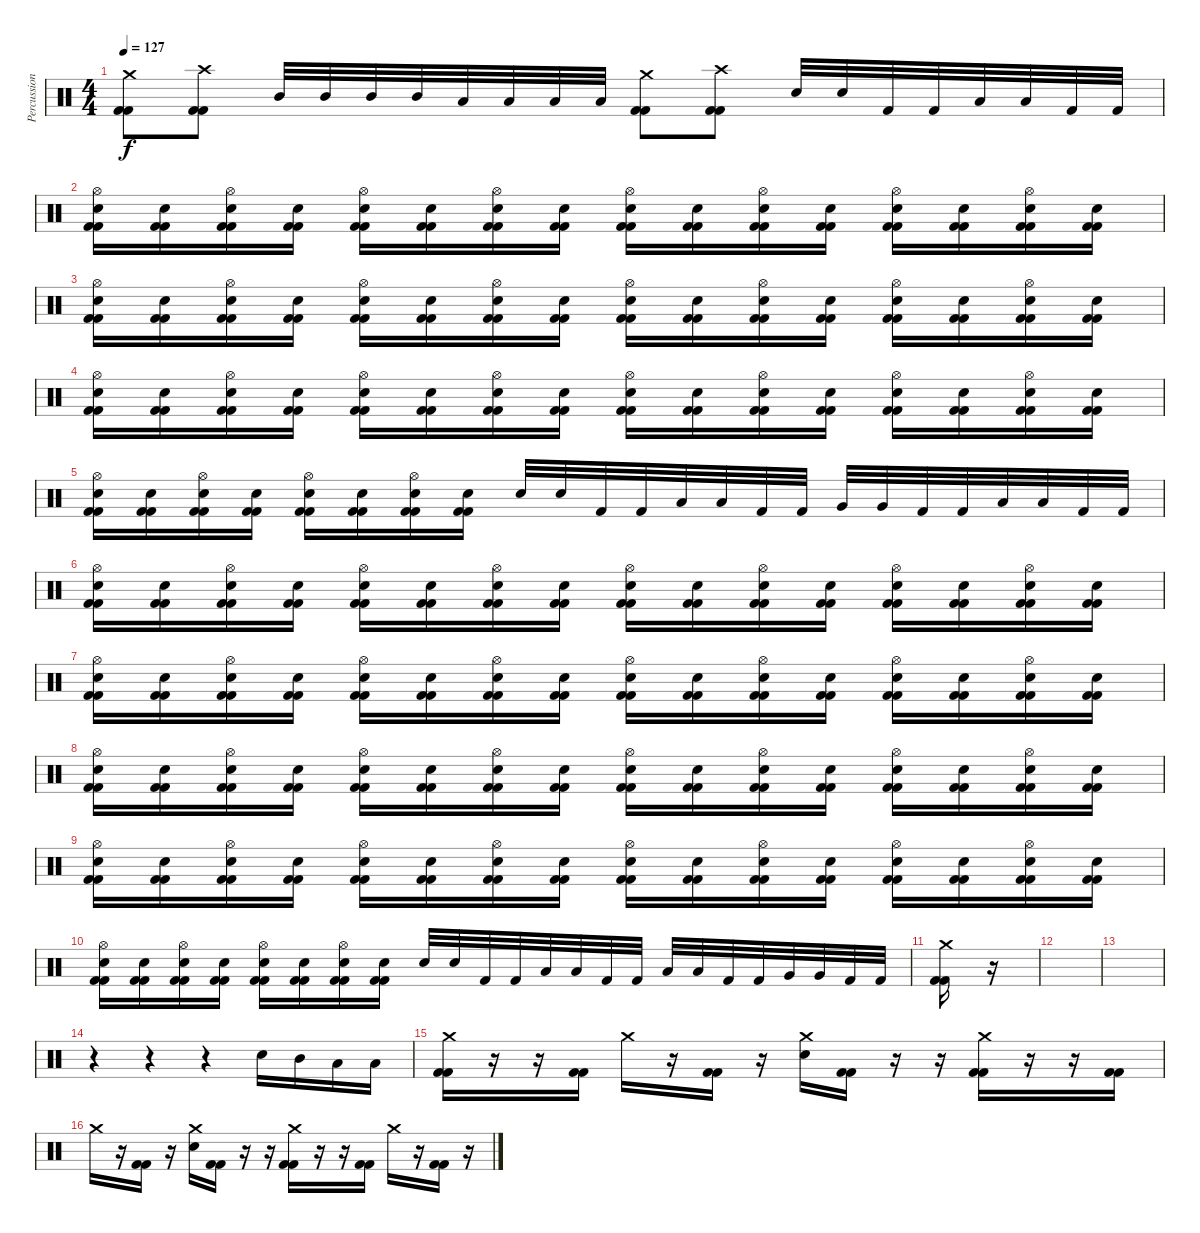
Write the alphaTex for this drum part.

\track ("Percussion" "Percussion") {instrument percussion}
\staff {score}
\articulation defaults
\ts (4 4)
\tempo 127
\clef neutral
\ks c
("Crash medium (hit)" "Kick (hit) 2" "Kick (hit) 2").8{dy f} ("Crash high (hit)" "Kick (hit) 2" "Kick (hit) 2").8 "Mid Tom (hit)".32 "Mid Tom (hit)".32 "Mid Tom (hit)".32 "Mid Tom (hit)".32 "Low Tom (hit)".32 "Low Tom (hit)".32 "Low Tom (hit)".32 "Low Tom (hit)".32 ("Crash medium (hit)" "Kick (hit) 2" "Kick (hit) 2").8 ("Crash high (hit)" "Kick (hit) 2" "Kick (hit) 2").8 "Electric Snare (hit)".32 "Electric Snare (hit)".32 "Kick (hit) 2".32 "Kick (hit) 2".32 "Low Tom (hit)".32 "Low Tom (hit)".32 "Kick (hit) 2".32 "Kick (hit) 2".32 |
("Hi-Hat (open)" "Electric Snare (hit)" "Kick (hit) 2" "Kick (hit) 2").16 ("Electric Snare (hit)" "Kick (hit) 2" "Kick (hit) 2").16 ("Hi-Hat (open)" "Electric Snare (hit)" "Kick (hit) 2" "Kick (hit) 2").16 ("Electric Snare (hit)" "Kick (hit) 2" "Kick (hit) 2").16 ("Hi-Hat (open)" "Electric Snare (hit)" "Kick (hit) 2" "Kick (hit) 2").16 ("Electric Snare (hit)" "Kick (hit) 2" "Kick (hit) 2").16 ("Hi-Hat (open)" "Electric Snare (hit)" "Kick (hit) 2" "Kick (hit) 2").16 ("Electric Snare (hit)" "Kick (hit) 2" "Kick (hit) 2").16 ("Hi-Hat (open)" "Electric Snare (hit)" "Kick (hit) 2" "Kick (hit) 2").16 ("Electric Snare (hit)" "Kick (hit) 2" "Kick (hit) 2").16 ("Hi-Hat (open)" "Electric Snare (hit)" "Kick (hit) 2" "Kick (hit) 2").16 ("Electric Snare (hit)" "Kick (hit) 2" "Kick (hit) 2").16 ("Hi-Hat (open)" "Electric Snare (hit)" "Kick (hit) 2" "Kick (hit) 2").16 ("Electric Snare (hit)" "Kick (hit) 2" "Kick (hit) 2").16 ("Hi-Hat (open)" "Electric Snare (hit)" "Kick (hit) 2" "Kick (hit) 2").16 ("Electric Snare (hit)" "Kick (hit) 2" "Kick (hit) 2").16 |
("Hi-Hat (open)" "Electric Snare (hit)" "Kick (hit) 2" "Kick (hit) 2").16 ("Electric Snare (hit)" "Kick (hit) 2" "Kick (hit) 2").16 ("Hi-Hat (open)" "Electric Snare (hit)" "Kick (hit) 2" "Kick (hit) 2").16 ("Electric Snare (hit)" "Kick (hit) 2" "Kick (hit) 2").16 ("Hi-Hat (open)" "Electric Snare (hit)" "Kick (hit) 2" "Kick (hit) 2").16 ("Electric Snare (hit)" "Kick (hit) 2" "Kick (hit) 2").16 ("Hi-Hat (open)" "Electric Snare (hit)" "Kick (hit) 2" "Kick (hit) 2").16 ("Electric Snare (hit)" "Kick (hit) 2" "Kick (hit) 2").16 ("Hi-Hat (open)" "Electric Snare (hit)" "Kick (hit) 2" "Kick (hit) 2").16 ("Electric Snare (hit)" "Kick (hit) 2" "Kick (hit) 2").16 ("Hi-Hat (open)" "Electric Snare (hit)" "Kick (hit) 2" "Kick (hit) 2").16 ("Electric Snare (hit)" "Kick (hit) 2" "Kick (hit) 2").16 ("Hi-Hat (open)" "Electric Snare (hit)" "Kick (hit) 2" "Kick (hit) 2").16 ("Electric Snare (hit)" "Kick (hit) 2" "Kick (hit) 2").16 ("Hi-Hat (open)" "Electric Snare (hit)" "Kick (hit) 2" "Kick (hit) 2").16 ("Electric Snare (hit)" "Kick (hit) 2" "Kick (hit) 2").16 |
("Hi-Hat (open)" "Electric Snare (hit)" "Kick (hit) 2" "Kick (hit) 2").16 ("Electric Snare (hit)" "Kick (hit) 2" "Kick (hit) 2").16 ("Hi-Hat (open)" "Electric Snare (hit)" "Kick (hit) 2" "Kick (hit) 2").16 ("Electric Snare (hit)" "Kick (hit) 2" "Kick (hit) 2").16 ("Hi-Hat (open)" "Electric Snare (hit)" "Kick (hit) 2" "Kick (hit) 2").16 ("Electric Snare (hit)" "Kick (hit) 2" "Kick (hit) 2").16 ("Hi-Hat (open)" "Electric Snare (hit)" "Kick (hit) 2" "Kick (hit) 2").16 ("Electric Snare (hit)" "Kick (hit) 2" "Kick (hit) 2").16 ("Hi-Hat (open)" "Electric Snare (hit)" "Kick (hit) 2" "Kick (hit) 2").16 ("Electric Snare (hit)" "Kick (hit) 2" "Kick (hit) 2").16 ("Hi-Hat (open)" "Electric Snare (hit)" "Kick (hit) 2" "Kick (hit) 2").16 ("Electric Snare (hit)" "Kick (hit) 2" "Kick (hit) 2").16 ("Hi-Hat (open)" "Electric Snare (hit)" "Kick (hit) 2" "Kick (hit) 2").16 ("Electric Snare (hit)" "Kick (hit) 2" "Kick (hit) 2").16 ("Hi-Hat (open)" "Electric Snare (hit)" "Kick (hit) 2" "Kick (hit) 2").16 ("Electric Snare (hit)" "Kick (hit) 2" "Kick (hit) 2").16 |
("Hi-Hat (open)" "Electric Snare (hit)" "Kick (hit) 2" "Kick (hit) 2").16 ("Electric Snare (hit)" "Kick (hit) 2" "Kick (hit) 2").16 ("Hi-Hat (open)" "Electric Snare (hit)" "Kick (hit) 2" "Kick (hit) 2").16 ("Electric Snare (hit)" "Kick (hit) 2" "Kick (hit) 2").16 ("Hi-Hat (open)" "Electric Snare (hit)" "Kick (hit) 2" "Kick (hit) 2").16 ("Electric Snare (hit)" "Kick (hit) 2" "Kick (hit) 2").16 ("Hi-Hat (open)" "Electric Snare (hit)" "Kick (hit) 2" "Kick (hit) 2").16 ("Electric Snare (hit)" "Kick (hit) 2" "Kick (hit) 2").16 "Electric Snare (hit)".32 "Electric Snare (hit)".32 "Kick (hit) 2".32 "Kick (hit) 2".32 "Low Tom (hit)".32 "Low Tom (hit)".32 "Kick (hit) 2".32 "Kick (hit) 2".32 "Very Low Tom (hit)".32 "Very Low Tom (hit)".32 "Kick (hit) 2".32 "Kick (hit) 2".32 "Low Floor Tom (hit)".32 "Low Floor Tom (hit)".32 "Kick (hit) 2".32 "Kick (hit) 2".32 |
("Hi-Hat (open)" "Electric Snare (hit)" "Kick (hit) 2" "Kick (hit) 2").16 ("Electric Snare (hit)" "Kick (hit) 2" "Kick (hit) 2").16 ("Hi-Hat (open)" "Electric Snare (hit)" "Kick (hit) 2" "Kick (hit) 2").16 ("Electric Snare (hit)" "Kick (hit) 2" "Kick (hit) 2").16 ("Hi-Hat (open)" "Electric Snare (hit)" "Kick (hit) 2" "Kick (hit) 2").16 ("Electric Snare (hit)" "Kick (hit) 2" "Kick (hit) 2").16 ("Hi-Hat (open)" "Electric Snare (hit)" "Kick (hit) 2" "Kick (hit) 2").16 ("Electric Snare (hit)" "Kick (hit) 2" "Kick (hit) 2").16 ("Hi-Hat (open)" "Electric Snare (hit)" "Kick (hit) 2" "Kick (hit) 2").16 ("Electric Snare (hit)" "Kick (hit) 2" "Kick (hit) 2").16 ("Hi-Hat (open)" "Electric Snare (hit)" "Kick (hit) 2" "Kick (hit) 2").16 ("Electric Snare (hit)" "Kick (hit) 2" "Kick (hit) 2").16 ("Hi-Hat (open)" "Electric Snare (hit)" "Kick (hit) 2" "Kick (hit) 2").16 ("Electric Snare (hit)" "Kick (hit) 2" "Kick (hit) 2").16 ("Hi-Hat (open)" "Electric Snare (hit)" "Kick (hit) 2" "Kick (hit) 2").16 ("Electric Snare (hit)" "Kick (hit) 2" "Kick (hit) 2").16 |
("Hi-Hat (open)" "Electric Snare (hit)" "Kick (hit) 2" "Kick (hit) 2").16 ("Electric Snare (hit)" "Kick (hit) 2" "Kick (hit) 2").16 ("Hi-Hat (open)" "Electric Snare (hit)" "Kick (hit) 2" "Kick (hit) 2").16 ("Electric Snare (hit)" "Kick (hit) 2" "Kick (hit) 2").16 ("Hi-Hat (open)" "Electric Snare (hit)" "Kick (hit) 2" "Kick (hit) 2").16 ("Electric Snare (hit)" "Kick (hit) 2" "Kick (hit) 2").16 ("Hi-Hat (open)" "Electric Snare (hit)" "Kick (hit) 2" "Kick (hit) 2").16 ("Electric Snare (hit)" "Kick (hit) 2" "Kick (hit) 2").16 ("Hi-Hat (open)" "Electric Snare (hit)" "Kick (hit) 2" "Kick (hit) 2").16 ("Electric Snare (hit)" "Kick (hit) 2" "Kick (hit) 2").16 ("Hi-Hat (open)" "Electric Snare (hit)" "Kick (hit) 2" "Kick (hit) 2").16 ("Electric Snare (hit)" "Kick (hit) 2" "Kick (hit) 2").16 ("Hi-Hat (open)" "Electric Snare (hit)" "Kick (hit) 2" "Kick (hit) 2").16 ("Electric Snare (hit)" "Kick (hit) 2" "Kick (hit) 2").16 ("Hi-Hat (open)" "Electric Snare (hit)" "Kick (hit) 2" "Kick (hit) 2").16 ("Electric Snare (hit)" "Kick (hit) 2" "Kick (hit) 2").16 |
("Hi-Hat (open)" "Electric Snare (hit)" "Kick (hit) 2" "Kick (hit) 2").16 ("Electric Snare (hit)" "Kick (hit) 2" "Kick (hit) 2").16 ("Hi-Hat (open)" "Electric Snare (hit)" "Kick (hit) 2" "Kick (hit) 2").16 ("Electric Snare (hit)" "Kick (hit) 2" "Kick (hit) 2").16 ("Hi-Hat (open)" "Electric Snare (hit)" "Kick (hit) 2" "Kick (hit) 2").16 ("Electric Snare (hit)" "Kick (hit) 2" "Kick (hit) 2").16 ("Hi-Hat (open)" "Electric Snare (hit)" "Kick (hit) 2" "Kick (hit) 2").16 ("Electric Snare (hit)" "Kick (hit) 2" "Kick (hit) 2").16 ("Hi-Hat (open)" "Electric Snare (hit)" "Kick (hit) 2" "Kick (hit) 2").16 ("Electric Snare (hit)" "Kick (hit) 2" "Kick (hit) 2").16 ("Hi-Hat (open)" "Electric Snare (hit)" "Kick (hit) 2" "Kick (hit) 2").16 ("Electric Snare (hit)" "Kick (hit) 2" "Kick (hit) 2").16 ("Hi-Hat (open)" "Electric Snare (hit)" "Kick (hit) 2" "Kick (hit) 2").16 ("Electric Snare (hit)" "Kick (hit) 2" "Kick (hit) 2").16 ("Hi-Hat (open)" "Electric Snare (hit)" "Kick (hit) 2" "Kick (hit) 2").16 ("Electric Snare (hit)" "Kick (hit) 2" "Kick (hit) 2").16 |
("Hi-Hat (open)" "Electric Snare (hit)" "Kick (hit) 2" "Kick (hit) 2").16 ("Electric Snare (hit)" "Kick (hit) 2" "Kick (hit) 2").16 ("Hi-Hat (open)" "Electric Snare (hit)" "Kick (hit) 2" "Kick (hit) 2").16 ("Electric Snare (hit)" "Kick (hit) 2" "Kick (hit) 2").16 ("Hi-Hat (open)" "Electric Snare (hit)" "Kick (hit) 2" "Kick (hit) 2").16 ("Electric Snare (hit)" "Kick (hit) 2" "Kick (hit) 2").16 ("Hi-Hat (open)" "Electric Snare (hit)" "Kick (hit) 2" "Kick (hit) 2").16 ("Electric Snare (hit)" "Kick (hit) 2" "Kick (hit) 2").16 ("Hi-Hat (open)" "Electric Snare (hit)" "Kick (hit) 2" "Kick (hit) 2").16 ("Electric Snare (hit)" "Kick (hit) 2" "Kick (hit) 2").16 ("Hi-Hat (open)" "Electric Snare (hit)" "Kick (hit) 2" "Kick (hit) 2").16 ("Electric Snare (hit)" "Kick (hit) 2" "Kick (hit) 2").16 ("Hi-Hat (open)" "Electric Snare (hit)" "Kick (hit) 2" "Kick (hit) 2").16 ("Electric Snare (hit)" "Kick (hit) 2" "Kick (hit) 2").16 ("Hi-Hat (open)" "Electric Snare (hit)" "Kick (hit) 2" "Kick (hit) 2").16 ("Electric Snare (hit)" "Kick (hit) 2" "Kick (hit) 2").16 |
("Hi-Hat (open)" "Electric Snare (hit)" "Kick (hit) 2" "Kick (hit) 2").16 ("Electric Snare (hit)" "Kick (hit) 2" "Kick (hit) 2").16 ("Hi-Hat (open)" "Electric Snare (hit)" "Kick (hit) 2" "Kick (hit) 2").16 ("Electric Snare (hit)" "Kick (hit) 2" "Kick (hit) 2").16 ("Hi-Hat (open)" "Electric Snare (hit)" "Kick (hit) 2" "Kick (hit) 2").16 ("Electric Snare (hit)" "Kick (hit) 2" "Kick (hit) 2").16 ("Hi-Hat (open)" "Electric Snare (hit)" "Kick (hit) 2" "Kick (hit) 2").16 ("Electric Snare (hit)" "Kick (hit) 2" "Kick (hit) 2").16 "Electric Snare (hit)".32 "Electric Snare (hit)".32 "Kick (hit) 2".32 "Kick (hit) 2".32 "Low Tom (hit)".32 "Low Tom (hit)".32 "Kick (hit) 2".32 "Kick (hit) 2".32 "Low Floor Tom (hit)".32 "Low Floor Tom (hit)".32 "Kick (hit) 2".32 "Kick (hit) 2".32 "Very Low Tom (hit)".32 "Very Low Tom (hit)".32 "Kick (hit) 2".32 "Kick (hit) 2".32 |
("Crash medium (hit)" "Kick (hit) 2" "Kick (hit) 2").16 r.16{volume 0} |
|
|
r.4 r.4 r.4 "Electric Snare (hit)".16{volume 13} "Mid Tom (hit)".16 "Low Tom (hit)".16 "Low Floor Tom (hit)".16 |
("Crash medium (hit)" "Kick (hit) 2" "Kick (hit) 2").16 r.16 r.16 ("Kick (hit) 2" "Kick (hit) 2").16 "Crash medium (hit)".16 r.16 ("Kick (hit) 2" "Kick (hit) 2").16 r.16 ("Crash medium (hit)" "Electric Snare (hit)").16 ("Kick (hit) 2" "Kick (hit) 2").16 r.16 r.16 ("Crash medium (hit)" "Kick (hit) 2" "Kick (hit) 2").16 r.16 r.16 ("Kick (hit) 2" "Kick (hit) 2").16 |
"Crash medium (hit)".16 r.16 ("Kick (hit) 2" "Kick (hit) 2").16 r.16 ("Crash medium (hit)" "Electric Snare (hit)").16 ("Kick (hit) 2" "Kick (hit) 2").16 r.16 r.16 ("Crash medium (hit)" "Kick (hit) 2" "Kick (hit) 2").16 r.16 r.16 ("Kick (hit) 2" "Kick (hit) 2").16 "Crash medium (hit)".16 r.16 ("Kick (hit) 2" "Kick (hit) 2").16 r.16
